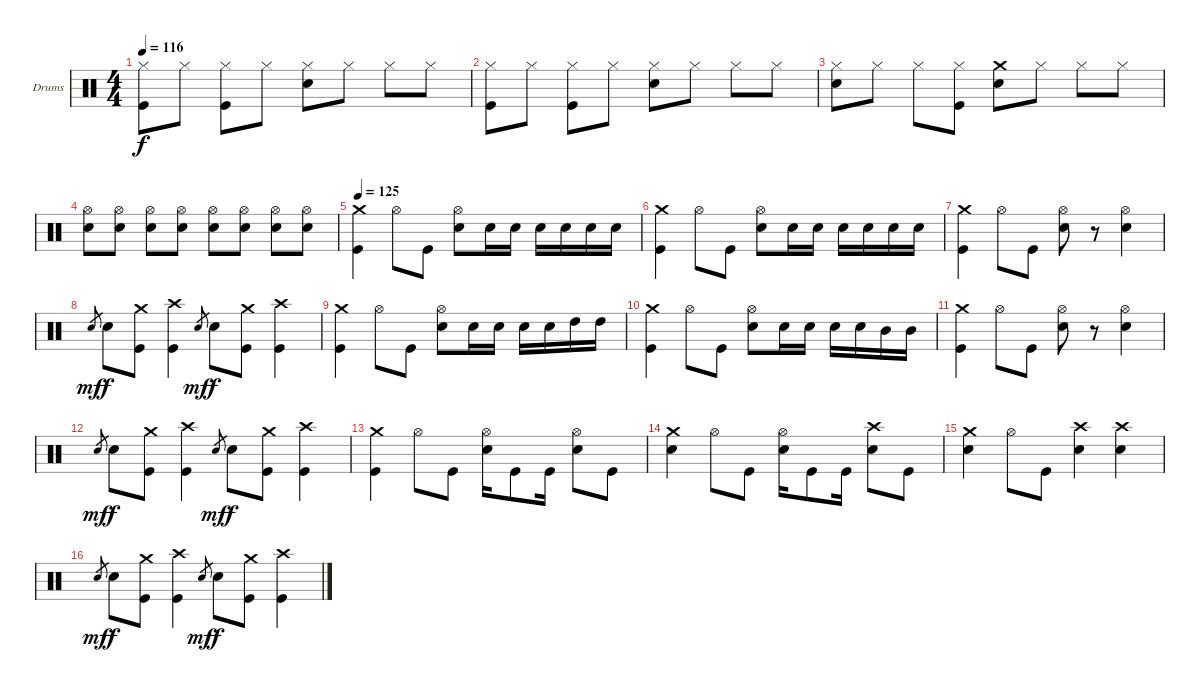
\bracketExtendMode groupsimilarinstruments
\firstSystemTrackNameOrientation horizontal
\otherSystemsTrackNameOrientation horizontal
\track ("Drumkit" "Drums") {instrument percussion}
\staff {score}
\articulation defaults
\ts (4 4)
\tempo 116
\clef neutral
\ks c
("Kick (hit)" "Hi-Hat (closed)").8{dy f} "Hi-Hat (closed)".8 ("Kick (hit)" "Hi-Hat (closed)").8 "Hi-Hat (closed)".8 ("Snare (hit) 2" "Hi-Hat (closed)").8 "Hi-Hat (closed)".8 "Hi-Hat (closed)".8 "Hi-Hat (closed)".8 |
("Kick (hit)" "Hi-Hat (closed)").8 "Hi-Hat (closed)".8 ("Kick (hit)" "Hi-Hat (closed)").8 "Hi-Hat (closed)".8 ("Snare (hit) 2" "Hi-Hat (closed)").8 "Hi-Hat (closed)".8 "Hi-Hat (closed)".8 "Hi-Hat (closed)".8 |
("Snare (hit) 2" "Hi-Hat (closed)").8 "Hi-Hat (closed)".8 "Hi-Hat (closed)".8 ("Kick (hit)" "Hi-Hat (closed)").8 ("Snare (hit) 2" "Crash medium (hit)").8 "Hi-Hat (closed)".8 "Hi-Hat (closed)".8 "Hi-Hat (closed)".8 |
("Snare (hit) 2" "Hi-Hat (open)").8 ("Snare (hit) 2" "Hi-Hat (open)").8 ("Snare (hit) 2" "Hi-Hat (open)").8 ("Snare (hit) 2" "Hi-Hat (open)").8 ("Snare (hit) 2" "Hi-Hat (open)").8 ("Snare (hit) 2" "Hi-Hat (open)").8 ("Snare (hit) 2" "Hi-Hat (open)").8 ("Snare (hit) 2" "Hi-Hat (open)").8 |
\tempo 125
("Kick (hit)" "Crash medium (hit)").4 "Hi-Hat (open)".8 "Kick (hit)".8 ("Snare (hit) 2" "Hi-Hat (open)").8 "Snare (hit) 2".16 "Snare (hit) 2".16 "Snare (hit) 2".16 "Snare (hit) 2".16 "Snare (hit) 2".16 "Snare (hit) 2".16 |
("Kick (hit)" "Crash medium (hit)").4 "Hi-Hat (open)".8 "Kick (hit)".8 ("Snare (hit) 2" "Hi-Hat (open)").8 "Snare (hit) 2".16 "Snare (hit) 2".16 "Snare (hit) 2".16 "Snare (hit) 2".16 "Snare (hit) 2".16 "Snare (hit) 2".16 |
("Kick (hit)" "Crash medium (hit)").4 "Hi-Hat (open)".8 "Kick (hit)".8 ("Snare (hit) 2" "Hi-Hat (open)").8 r.8 ("Snare (hit) 2" "Hi-Hat (open)").4 |
"Snare (hit) 2".8{gr dy mf} "Snare (hit) 2".8{dy f} ("Kick (hit)" "Crash medium (hit)").8 ("Kick (hit)" "Crash high (hit)").4 "Snare (hit) 2".8{gr dy mf} "Snare (hit) 2".8{dy f} ("Kick (hit)" "Crash medium (hit)").8 ("Kick (hit)" "Crash high (hit)").4 |
("Kick (hit)" "Crash medium (hit)").4 "Hi-Hat (open)".8 "Kick (hit)".8 ("Snare (hit) 2" "Hi-Hat (open)").8 "Snare (hit) 2".16 "Snare (hit) 2".16 "Snare (hit) 2".16 "Snare (hit) 2".16 "High Tom (hit)".16 "High Tom (hit)".16 |
("Kick (hit)" "Crash medium (hit)").4 "Hi-Hat (open)".8 "Kick (hit)".8 ("Snare (hit) 2" "Hi-Hat (open)").8 "Snare (hit) 2".16 "Snare (hit) 2".16 "Snare (hit) 2".16 "Snare (hit) 2".16 "Mid Tom (hit)".16 "Mid Tom (hit)".16 |
("Kick (hit)" "Crash medium (hit)").4 "Hi-Hat (open)".8 "Kick (hit)".8 ("Snare (hit) 2" "Hi-Hat (open)").8 r.8 ("Snare (hit) 2" "Hi-Hat (open)").4 |
"Snare (hit) 2".8{gr dy mf} "Snare (hit) 2".8{dy f} ("Kick (hit)" "Crash medium (hit)").8 ("Kick (hit)" "Crash high (hit)").4 "Snare (hit) 2".8{gr dy mf} "Snare (hit) 2".8{dy f} ("Kick (hit)" "Crash medium (hit)").8 ("Kick (hit)" "Crash high (hit)").4 |
("Kick (hit)" "Crash medium (hit)").4 "Hi-Hat (open)".8 "Kick (hit)".8 ("Snare (hit) 2" "Hi-Hat (open)").16 "Kick (hit)".8 "Kick (hit)".16 ("Snare (hit) 2" "Hi-Hat (open)").8 "Kick (hit)".8 |
("Snare (hit) 2" "Crash medium (hit)").4 "Hi-Hat (open)".8 "Kick (hit)".8 ("Snare (hit) 2" "Hi-Hat (open)").16 "Kick (hit)".8 "Kick (hit)".16 ("Snare (hit) 2" "Crash high (hit)").8 "Kick (hit)".8 |
("Snare (hit) 2" "Crash medium (hit)").4 "Hi-Hat (open)".8 "Kick (hit)".8 ("Snare (hit) 2" "Crash high (hit)").4 ("Snare (hit) 2" "Crash high (hit)").4 |
"Snare (hit) 2".8{gr dy mf} "Snare (hit) 2".8{dy f} ("Kick (hit)" "Crash medium (hit)").8 ("Kick (hit)" "Crash high (hit)").4 "Snare (hit) 2".8{gr dy mf} "Snare (hit) 2".8{dy f} ("Kick (hit)" "Crash medium (hit)").8 ("Kick (hit)" "Crash high (hit)").4
